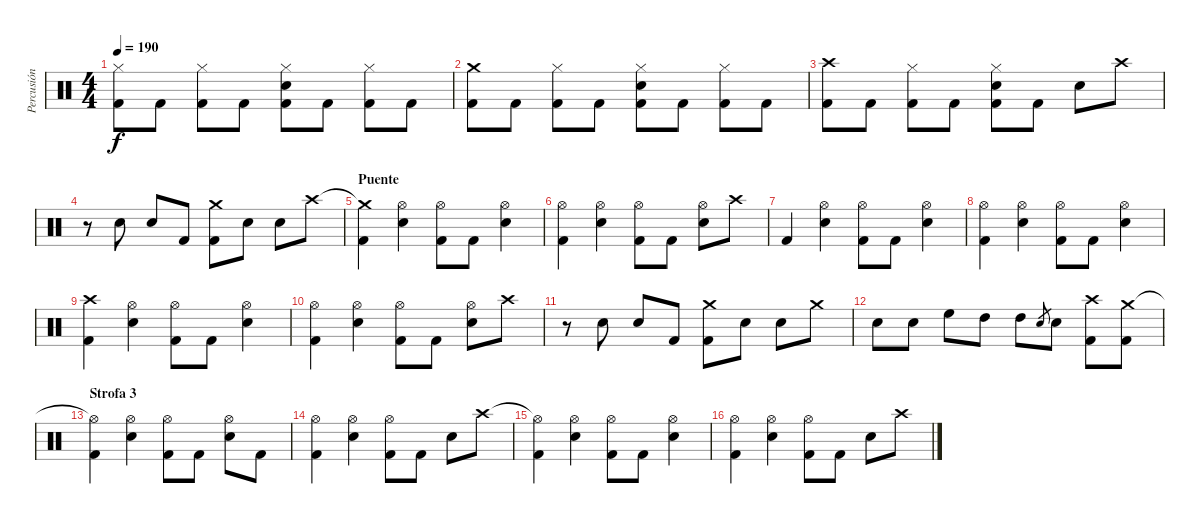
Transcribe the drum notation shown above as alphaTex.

\track ("Percusión" "Percusión") {instrument percussion}
\staff {score}
\articulation defaults
\ts (4 4)
\tempo 190
\clef neutral
\ks c
("Hi-Hat (closed)" "Kick (hit) 2").8{dy f} "Kick (hit) 2".8 ("Hi-Hat (closed)" "Kick (hit) 2").8 "Kick (hit) 2".8 ("Hi-Hat (closed)" "Snare (hit) 2" "Kick (hit) 2").8 "Kick (hit) 2".8 ("Hi-Hat (closed)" "Kick (hit) 2").8 "Kick (hit) 2".8 |
("Crash medium (hit)" "Kick (hit) 2").8 "Kick (hit) 2".8 ("Hi-Hat (closed)" "Kick (hit) 2").8 "Kick (hit) 2".8 ("Hi-Hat (closed)" "Snare (hit) 2" "Kick (hit) 2").8 "Kick (hit) 2".8 ("Hi-Hat (closed)" "Kick (hit) 2").8 "Kick (hit) 2".8 |
("Crash high (hit)" "Kick (hit) 2").8 "Kick (hit) 2".8 ("Hi-Hat (closed)" "Kick (hit) 2").8 "Kick (hit) 2".8 ("Hi-Hat (closed)" "Snare (hit) 2" "Kick (hit) 2").8 "Kick (hit) 2".8 "Snare (hit) 2".8 "Crash high (hit)".8 |
r.8 "Snare (hit) 2".8 "Snare (hit) 2".8 "Kick (hit) 2".8 ("Crash medium (hit)" "Kick (hit) 2").8 "Snare (hit) 2".8 "Snare (hit) 2".8 "Crash high (hit)".8 |
\section ("" "Puente")
("Crash medium (hit)"{t} "Kick (hit) 2").4 ("Hi-Hat (open)" "Snare (hit) 2").4 ("Hi-Hat (open)" "Kick (hit) 2").8 "Kick (hit) 2".8 ("Hi-Hat (open)" "Snare (hit) 2").4 |
("Hi-Hat (open)" "Kick (hit) 2").4 ("Hi-Hat (open)" "Snare (hit) 2").4 ("Hi-Hat (open)" "Kick (hit) 2").8 "Kick (hit) 2".8 ("Hi-Hat (open)" "Snare (hit) 2").8 "Crash high (hit)".8 |
"Kick (hit) 2".4 ("Hi-Hat (open)" "Snare (hit) 2").4 ("Hi-Hat (open)" "Kick (hit) 2").8 "Kick (hit) 2".8 ("Hi-Hat (open)" "Snare (hit) 2").4 |
("Hi-Hat (open)" "Kick (hit) 2").4 ("Hi-Hat (open)" "Snare (hit) 2").4 ("Hi-Hat (open)" "Kick (hit) 2").8 "Kick (hit) 2".8 ("Hi-Hat (open)" "Snare (hit) 2").4 |
("Crash high (hit)" "Kick (hit) 2").4 ("Hi-Hat (open)" "Snare (hit) 2").4 ("Hi-Hat (open)" "Kick (hit) 2").8 "Kick (hit) 2".8 ("Hi-Hat (open)" "Snare (hit) 2").4 |
("Hi-Hat (open)" "Kick (hit) 2").4 ("Hi-Hat (open)" "Snare (hit) 2").4 ("Hi-Hat (open)" "Kick (hit) 2").8 "Kick (hit) 2".8 ("Hi-Hat (open)" "Snare (hit) 2").8 "Crash high (hit)".8 |
r.8 "Snare (hit) 2".8 "Snare (hit) 2".8 "Kick (hit) 2".8 ("Crash medium (hit)" "Kick (hit) 2").8 "Snare (hit) 2".8 "Snare (hit) 2".8 "Crash medium (hit)".8 |
"Snare (hit) 2".8 "Snare (hit) 2".8 "High Floor Tom (hit)".8 "High Tom (hit)".8 "High Tom (hit)".8 "Snare (hit) 2".8{gr} "Snare (hit) 2".8 ("Crash high (hit)" "Kick (hit) 2").8 ("Crash medium (hit)" "Kick (hit) 2").8 |
\section ("" "Strofa 3")
("Hi-Hat (open)"{t} "Kick (hit) 2").4 ("Hi-Hat (open)" "Snare (hit) 2").4 ("Hi-Hat (open)" "Kick (hit) 2").8 "Kick (hit) 2".8 ("Hi-Hat (open)" "Snare (hit) 2").8 "Kick (hit) 2".8 |
("Hi-Hat (open)" "Kick (hit) 2").4 ("Hi-Hat (open)" "Snare (hit) 2").4 ("Hi-Hat (open)" "Kick (hit) 2").8 "Kick (hit) 2".8 "Snare (hit) 2".8 "Crash high (hit)".8 |
("Hi-Hat (open)"{t} "Kick (hit) 2").4 ("Hi-Hat (open)" "Snare (hit) 2").4 ("Hi-Hat (open)" "Kick (hit) 2").8 "Kick (hit) 2".8 ("Hi-Hat (open)" "Snare (hit) 2").4 |
("Hi-Hat (open)" "Kick (hit) 2").4 ("Hi-Hat (open)" "Snare (hit) 2").4 ("Hi-Hat (open)" "Kick (hit) 2").8 "Kick (hit) 2".8 "Snare (hit) 2".8 "Crash high (hit)".8
